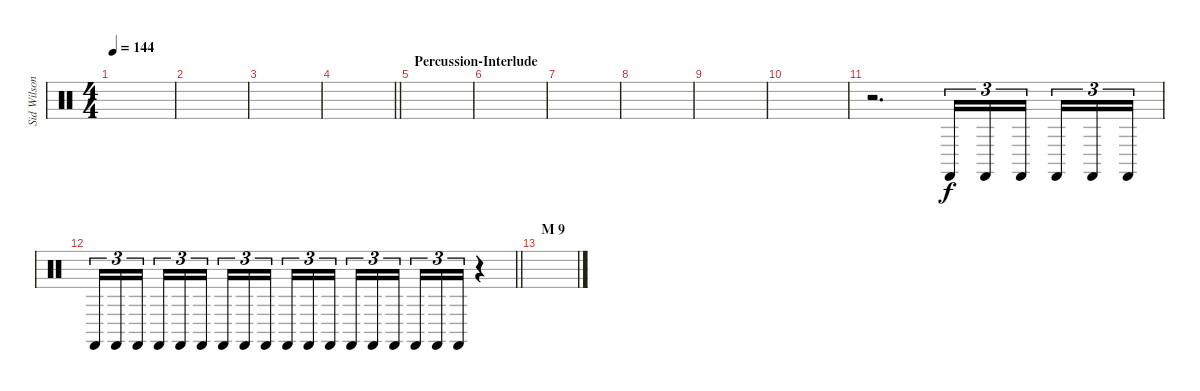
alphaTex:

\track ("Sid Wilson" "Sid Wilson") {instrument percussion}
\staff {score}
\articulation defaults
\ts (4 4)
\tempo 144
\clef neutral
\ks c
|
|
|
\barLineRight lightlight
|
\section ("" "Percussion-Interlude")
|
|
|
|
|
|
r.2{d} "Castanets (hit)".16{tu (3 2)} "Castanets (hit)".16{tu (3 2)} "Castanets (hit)".16{tu (3 2) beam splitsecondary} "Castanets (hit)".16{tu (3 2)} "Castanets (hit)".16{tu (3 2)} "Castanets (hit)".16{tu (3 2)} |
\barLineRight lightlight "Castanets (hit)".16{tu (3 2)} "Castanets (hit)".16{tu (3 2)} "Castanets (hit)".16{tu (3 2) beam splitsecondary} "Castanets (hit)".16{tu (3 2)} "Castanets (hit)".16{tu (3 2)} "Castanets (hit)".16{tu (3 2)} "Castanets (hit)".16{tu (3 2)} "Castanets (hit)".16{tu (3 2)} "Castanets (hit)".16{tu (3 2) beam splitsecondary} "Castanets (hit)".16{tu (3 2)} "Castanets (hit)".16{tu (3 2)} "Castanets (hit)".16{tu (3 2)} "Castanets (hit)".16{tu (3 2)} "Castanets (hit)".16{tu (3 2)} "Castanets (hit)".16{tu (3 2) beam splitsecondary} "Castanets (hit)".16{tu (3 2)} "Castanets (hit)".16{tu (3 2)} "Castanets (hit)".16{tu (3 2)}
r.4 |
\section ("" "M 9")
